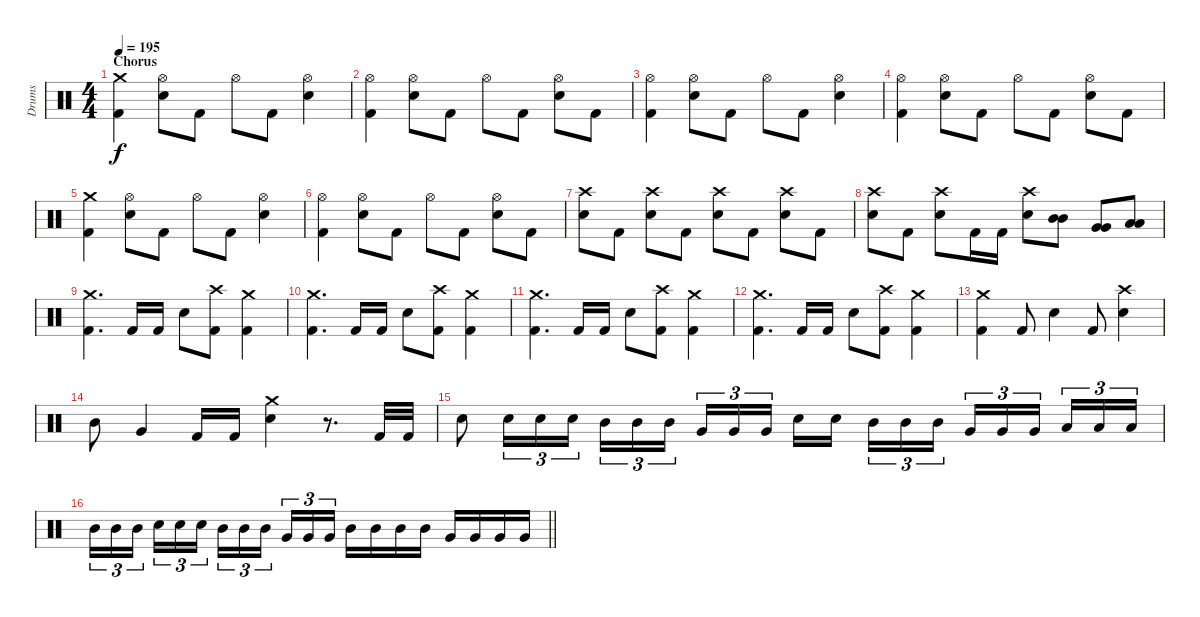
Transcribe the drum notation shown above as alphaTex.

\track ("Drums" "Drums") {instrument percussion}
\staff {score}
\articulation defaults
\ts (4 4)
\section ("" "Chorus")
\tempo 195
\clef neutral
\ks c
("Crash medium (hit)" "Kick (hit) 2").4{dy f} ("Hi-Hat (open)" "Snare (hit) 2").8 "Kick (hit) 2".8 "Hi-Hat (open)".8 "Kick (hit) 2".8 ("Hi-Hat (open)" "Snare (hit) 2").4 |
("Hi-Hat (open)" "Kick (hit) 2").4 ("Hi-Hat (open)" "Snare (hit) 2").8 "Kick (hit) 2".8 "Hi-Hat (open)".8 "Kick (hit) 2".8 ("Hi-Hat (open)" "Snare (hit) 2").8 "Kick (hit) 2".8 |
("Hi-Hat (open)" "Kick (hit) 2").4 ("Hi-Hat (open)" "Snare (hit) 2").8 "Kick (hit) 2".8 "Hi-Hat (open)".8 "Kick (hit) 2".8 ("Hi-Hat (open)" "Snare (hit) 2").4 |
("Hi-Hat (open)" "Kick (hit) 2").4 ("Hi-Hat (open)" "Snare (hit) 2").8 "Kick (hit) 2".8 "Hi-Hat (open)".8 "Kick (hit) 2".8 ("Hi-Hat (open)" "Snare (hit) 2").8 "Kick (hit) 2".8 |
("Crash medium (hit)" "Kick (hit) 2").4 ("Hi-Hat (open)" "Snare (hit) 2").8 "Kick (hit) 2".8 "Hi-Hat (open)".8 "Kick (hit) 2".8 ("Hi-Hat (open)" "Snare (hit) 2").4 |
("Hi-Hat (open)" "Kick (hit) 2").4 ("Hi-Hat (open)" "Snare (hit) 2").8 "Kick (hit) 2".8 "Hi-Hat (open)".8 "Kick (hit) 2".8 ("Hi-Hat (open)" "Snare (hit) 2").8 "Kick (hit) 2".8 |
("Crash high (hit)" "Snare (hit) 2").8 "Kick (hit) 2".8 ("Crash high (hit)" "Snare (hit) 2").8 "Kick (hit) 2".8 ("Crash high (hit)" "Snare (hit) 2").8 "Kick (hit) 2".8 ("Crash high (hit)" "Snare (hit) 2").8 "Kick (hit) 2".8 |
("Crash high (hit)" "Snare (hit) 2").8 "Kick (hit) 2".8 ("Crash high (hit)" "Snare (hit) 2").8 "Kick (hit) 2".16 "Kick (hit) 2".16 ("Crash high (hit)" "Snare (hit) 2").8 ("Mid Tom (hit)" "Mid Tom (hit)").8 ("Very Low Tom (hit)" "Very Low Tom (hit)").8 ("Low Floor Tom (hit)" "Low Floor Tom (hit)").8 |
("Crash medium (hit)" "Kick (hit) 2").4{d} "Kick (hit) 2".16 "Kick (hit) 2".16 "Snare (hit) 2".8 ("Crash high (hit)" "Kick (hit) 2").8 ("Crash medium (hit)" "Kick (hit) 2").4 |
("Crash medium (hit)" "Kick (hit) 2").4{d} "Kick (hit) 2".16 "Kick (hit) 2".16 "Snare (hit) 2".8 ("Crash high (hit)" "Kick (hit) 2").8 ("Crash medium (hit)" "Kick (hit) 2").4 |
("Crash medium (hit)" "Kick (hit) 2").4{d} "Kick (hit) 2".16 "Kick (hit) 2".16 "Snare (hit) 2".8 ("Crash high (hit)" "Kick (hit) 2").8 ("Crash medium (hit)" "Kick (hit) 2").4 |
("Crash medium (hit)" "Kick (hit) 2").4{d} "Kick (hit) 2".16 "Kick (hit) 2".16 "Snare (hit) 2".8 ("Crash high (hit)" "Kick (hit) 2").8 ("Crash medium (hit)" "Kick (hit) 2").4 |
("Crash medium (hit)" "Kick (hit) 2").4 "Kick (hit) 2".8 "Snare (hit) 2".4 "Kick (hit) 2".8 ("Crash high (hit)" "Snare (hit) 2").4 |
"Mid Tom (hit)".8 "Very Low Tom (hit)".4 "Kick (hit) 2".16 "Kick (hit) 2".16 ("Crash medium (hit)" "Snare (hit) 2").4 r.8{d} "Kick (hit) 2".32 "Kick (hit) 2".32 |
"Snare (hit) 2".8 "Snare (hit) 2".16{tu (3 2)} "Snare (hit) 2".16{tu (3 2)} "Snare (hit) 2".16{tu (3 2)} "Mid Tom (hit)".16{tu (3 2)} "Mid Tom (hit)".16{tu (3 2)} "Mid Tom (hit)".16{tu (3 2) beam splitsecondary} "Very Low Tom (hit)".16{tu (3 2)} "Very Low Tom (hit)".16{tu (3 2)} "Very Low Tom (hit)".16{tu (3 2)} "Snare (hit) 2".16 "Snare (hit) 2".16{beam splitsecondary} "Mid Tom (hit)".16{tu (3 2)} "Mid Tom (hit)".16{tu (3 2)} "Mid Tom (hit)".16{tu (3 2)} "Very Low Tom (hit)".16{tu (3 2)} "Very Low Tom (hit)".16{tu (3 2)} "Very Low Tom (hit)".16{tu (3 2) beam splitsecondary} "Low Floor Tom (hit)".16{tu (3 2)} "Low Floor Tom (hit)".16{tu (3 2)} "Low Floor Tom (hit)".16{tu (3 2)} |
\barLineRight lightlight "Mid Tom (hit)".16{tu (3 2)} "Mid Tom (hit)".16{tu (3 2)} "Mid Tom (hit)".16{tu (3 2) beam splitsecondary} "Snare (hit) 2".16{tu (3 2)} "Snare (hit) 2".16{tu (3 2)} "Snare (hit) 2".16{tu (3 2)} "Mid Tom (hit)".16{tu (3 2)} "Mid Tom (hit)".16{tu (3 2)} "Mid Tom (hit)".16{tu (3 2) beam splitsecondary} "Very Low Tom (hit)".16{tu (3 2)} "Very Low Tom (hit)".16{tu (3 2)} "Very Low Tom (hit)".16{tu (3 2)} "Mid Tom (hit)".16 "Mid Tom (hit)".16 "Mid Tom (hit)".16 "Mid Tom (hit)".16 "Very Low Tom (hit)".16 "Very Low Tom (hit)".16 "Very Low Tom (hit)".16 "Very Low Tom (hit)".16
